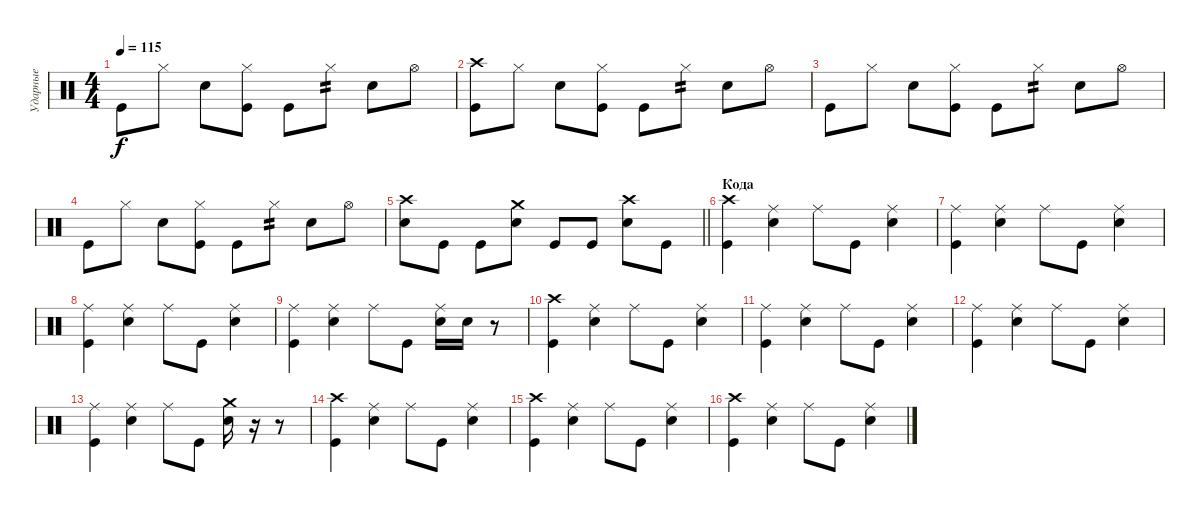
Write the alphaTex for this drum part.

\track ("Ударные" "Ударные") {instrument percussion}
\staff {score}
\articulation defaults
\ts (4 4)
\tempo 115
\clef neutral
\ks c "Kick (hit)".8{dy f} "Hi-Hat (closed)".8 "Snare (hit) 2".8
("Hi-Hat (closed)" "Kick (hit)").8 "Kick (hit)".8 "Hi-Hat (closed)".8{tp 2} "Snare (hit) 2".8 "Hi-Hat (open)".8 |
("Crash high (hit)" "Kick (hit)").8 "Hi-Hat (closed)".8 "Snare (hit) 2".8 ("Hi-Hat (closed)" "Kick (hit)").8 "Kick (hit)".8 "Hi-Hat (closed)".8{tp 2} "Snare (hit) 2".8 "Hi-Hat (open)".8 |
"Kick (hit)".8 "Hi-Hat (closed)".8 "Snare (hit) 2".8 ("Hi-Hat (closed)" "Kick (hit)").8 "Kick (hit)".8 "Hi-Hat (closed)".8{tp 2} "Snare (hit) 2".8 "Hi-Hat (open)".8 |
"Kick (hit)".8 "Hi-Hat (closed)".8 "Snare (hit) 2".8 ("Hi-Hat (closed)" "Kick (hit)").8 "Kick (hit)".8 "Hi-Hat (closed)".8{tp 2} "Snare (hit) 2".8 "Hi-Hat (open)".8 |
\barLineRight lightlight
("Crash high (hit)" "Snare (hit) 2").8 "Kick (hit)".8 "Kick (hit)".8 ("Crash medium (hit)" "Snare (hit) 2").8 "Kick (hit)".8 "Kick (hit)".8 ("Crash high (hit)" "Snare (hit) 2").8 "Kick (hit)".8 |
\section ("" "Кода")
("Crash high (hit)" "Kick (hit)").4 ("Ride (middle)" "Snare (hit) 2").4 "Ride (middle)".8 "Kick (hit)".8 ("Ride (middle)" "Snare (hit) 2").4 |
("Ride (middle)" "Kick (hit)").4 ("Ride (middle)" "Snare (hit) 2").4 "Ride (middle)".8 "Kick (hit)".8 ("Ride (middle)" "Snare (hit) 2").4 |
("Ride (middle)" "Kick (hit)").4 ("Ride (middle)" "Snare (hit) 2").4 "Ride (middle)".8 "Kick (hit)".8 ("Ride (middle)" "Snare (hit) 2").4 |
("Ride (middle)" "Kick (hit)").4 ("Ride (middle)" "Snare (hit) 2").4 "Ride (middle)".8 "Kick (hit)".8 ("Ride (middle)" "Snare (hit) 2").16 "Snare (hit) 2".16 r.8 |
("Crash high (hit)" "Kick (hit)").4 ("Ride (middle)" "Snare (hit) 2").4 "Ride (middle)".8 "Kick (hit)".8 ("Ride (middle)" "Snare (hit) 2").4 |
("Ride (middle)" "Kick (hit)").4 ("Ride (middle)" "Snare (hit) 2").4 "Ride (middle)".8 "Kick (hit)".8 ("Ride (middle)" "Snare (hit) 2").4 |
("Ride (middle)" "Kick (hit)").4 ("Ride (middle)" "Snare (hit) 2").4 "Ride (middle)".8 "Kick (hit)".8 ("Ride (middle)" "Snare (hit) 2").4 |
("Ride (middle)" "Kick (hit)").4 ("Ride (middle)" "Snare (hit) 2").4 "Ride (middle)".8 "Kick (hit)".8 ("Crash medium (hit)" "Snare (hit) 2").16 r.16 r.8 |
("Crash high (hit)" "Kick (hit)").4 ("Ride (middle)" "Snare (hit) 2").4 "Ride (middle)".8 "Kick (hit)".8 ("Ride (middle)" "Snare (hit) 2").4 |
("Crash high (hit)" "Kick (hit)").4 ("Ride (middle)" "Snare (hit) 2").4 "Ride (middle)".8 "Kick (hit)".8 ("Ride (middle)" "Snare (hit) 2").4 |
("Crash high (hit)" "Kick (hit)").4 ("Ride (middle)" "Snare (hit) 2").4 "Ride (middle)".8 "Kick (hit)".8 ("Ride (middle)" "Snare (hit) 2").4
